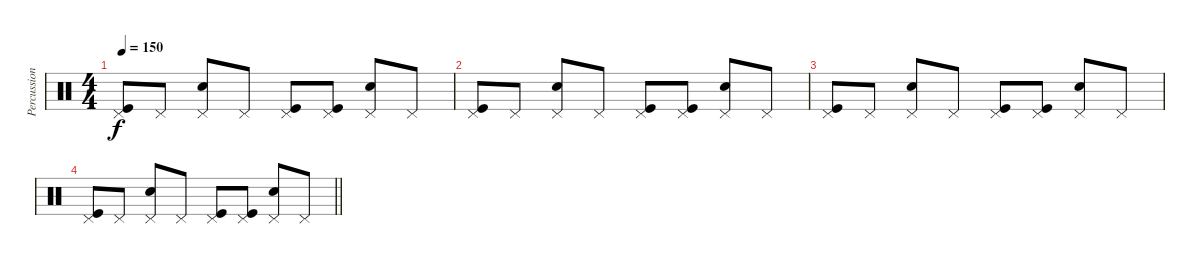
\track ("Percussion" "Percussion") {instrument percussion}
\staff {score}
\articulation defaults
\ts (4 4)
\tempo 150
\clef neutral
\ks c
("Kick (hit)" "Pedal Hi-Hat (hit)").8{dy f} "Pedal Hi-Hat (hit)".8 ("Snare (hit) 2" "Pedal Hi-Hat (hit)").8 "Pedal Hi-Hat (hit)".8 ("Kick (hit)" "Pedal Hi-Hat (hit)").8 ("Kick (hit)" "Pedal Hi-Hat (hit)").8 ("Snare (hit) 2" "Pedal Hi-Hat (hit)").8 "Pedal Hi-Hat (hit)".8 |
("Kick (hit)" "Pedal Hi-Hat (hit)").8 "Pedal Hi-Hat (hit)".8 ("Snare (hit) 2" "Pedal Hi-Hat (hit)").8 "Pedal Hi-Hat (hit)".8 ("Kick (hit)" "Pedal Hi-Hat (hit)").8 ("Kick (hit)" "Pedal Hi-Hat (hit)").8 ("Snare (hit) 2" "Pedal Hi-Hat (hit)").8 "Pedal Hi-Hat (hit)".8 |
("Kick (hit)" "Pedal Hi-Hat (hit)").8 "Pedal Hi-Hat (hit)".8 ("Snare (hit) 2" "Pedal Hi-Hat (hit)").8 "Pedal Hi-Hat (hit)".8 ("Kick (hit)" "Pedal Hi-Hat (hit)").8 ("Kick (hit)" "Pedal Hi-Hat (hit)").8 ("Snare (hit) 2" "Pedal Hi-Hat (hit)").8 "Pedal Hi-Hat (hit)".8 |
\barLineRight lightlight
("Kick (hit)" "Pedal Hi-Hat (hit)").8 "Pedal Hi-Hat (hit)".8 ("Snare (hit) 2" "Pedal Hi-Hat (hit)").8 "Pedal Hi-Hat (hit)".8 ("Kick (hit)" "Pedal Hi-Hat (hit)").8 ("Kick (hit)" "Pedal Hi-Hat (hit)").8 ("Snare (hit) 2" "Pedal Hi-Hat (hit)").8 "Pedal Hi-Hat (hit)".8
